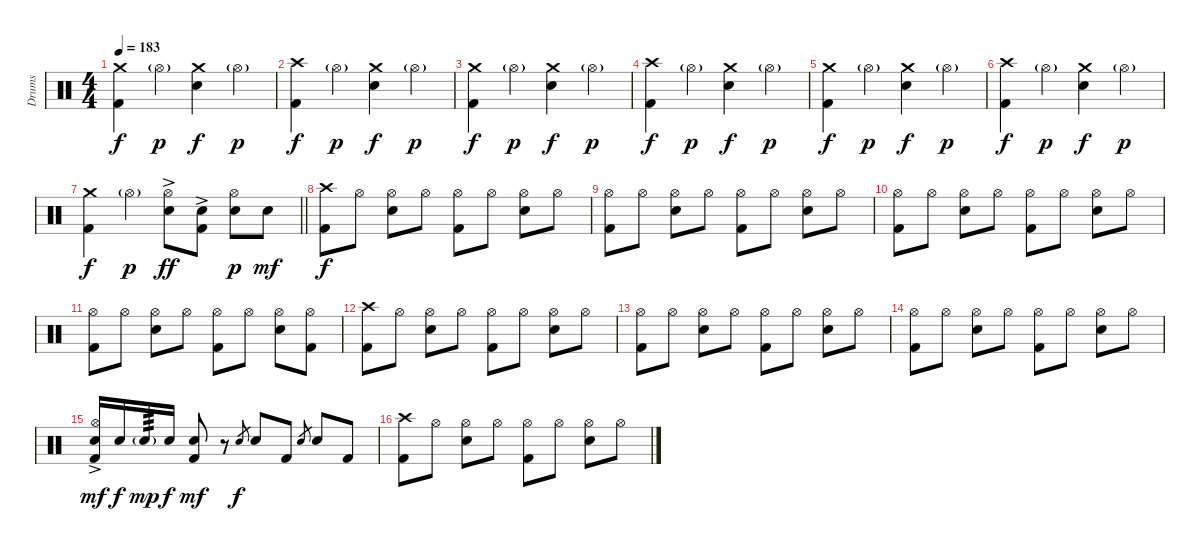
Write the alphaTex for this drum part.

\track ("Drums" "Drums") {instrument percussion}
\staff {score}
\articulation defaults
\ts (4 4)
\tempo 183
\clef neutral
\ks c
("Crash medium (hit)" "Kick (hit) 2").4{dy f} "Hi-Hat (open)"{g}.4{dy p} ("Crash medium (hit)" "Electric Snare (hit)").4{dy f} "Hi-Hat (open)"{g}.4{dy p} |
("Crash high (hit)" "Kick (hit) 2").4{dy f} "Hi-Hat (open)"{g}.4{dy p} ("Crash medium (hit)" "Electric Snare (hit)").4{dy f} "Hi-Hat (open)"{g}.4{dy p} |
("Crash medium (hit)" "Kick (hit) 2").4{dy f} "Hi-Hat (open)"{g}.4{dy p} ("Crash medium (hit)" "Electric Snare (hit)").4{dy f} "Hi-Hat (open)"{g}.4{dy p} |
("Crash high (hit)" "Kick (hit) 2").4{dy f} "Hi-Hat (open)"{g}.4{dy p} ("Crash medium (hit)" "Electric Snare (hit)").4{dy f} "Hi-Hat (open)"{g}.4{dy p} |
("Crash medium (hit)" "Kick (hit) 2").4{dy f} "Hi-Hat (open)"{g}.4{dy p} ("Crash medium (hit)" "Electric Snare (hit)").4{dy f} "Hi-Hat (open)"{g}.4{dy p} |
("Crash high (hit)" "Kick (hit) 2").4{dy f} "Hi-Hat (open)"{g}.4{dy p} ("Crash medium (hit)" "Electric Snare (hit)").4{dy f} "Hi-Hat (open)"{g}.4{dy p} |
\barLineRight lightlight
("Crash medium (hit)" "Kick (hit) 2").4{dy f} "Hi-Hat (open)"{g}.4{dy p} ("Hi-Hat (open)" "Electric Snare (hit)"{ac}).8{dy ff} ("Electric Snare (hit)"{ac} "Kick (hit) 2").8 ("Hi-Hat (open)" "Electric Snare (hit)").8{dy p} "Electric Snare (hit)".8{dy mf} |
("Crash high (hit)" "Kick (hit) 2").8{dy f} "Hi-Hat (open)".8 ("Hi-Hat (open)" "Electric Snare (hit)").8 "Hi-Hat (open)".8 ("Hi-Hat (open)" "Kick (hit) 2").8 "Hi-Hat (open)".8 ("Hi-Hat (open)" "Electric Snare (hit)").8 "Hi-Hat (open)".8 |
("Hi-Hat (open)" "Kick (hit) 2").8 "Hi-Hat (open)".8 ("Hi-Hat (open)" "Electric Snare (hit)").8 "Hi-Hat (open)".8 ("Hi-Hat (open)" "Kick (hit) 2").8 "Hi-Hat (open)".8 ("Hi-Hat (open)" "Electric Snare (hit)").8 "Hi-Hat (open)".8 |
("Hi-Hat (open)" "Kick (hit) 2").8 "Hi-Hat (open)".8 ("Hi-Hat (open)" "Electric Snare (hit)").8 "Hi-Hat (open)".8 ("Hi-Hat (open)" "Kick (hit) 2").8 "Hi-Hat (open)".8 ("Hi-Hat (open)" "Electric Snare (hit)").8 "Hi-Hat (open)".8 |
("Hi-Hat (open)" "Kick (hit) 2").8 "Hi-Hat (open)".8 ("Hi-Hat (open)" "Electric Snare (hit)").8 "Hi-Hat (open)".8 ("Hi-Hat (open)" "Kick (hit) 2").8 "Hi-Hat (open)".8 ("Hi-Hat (open)" "Electric Snare (hit)").8 ("Hi-Hat (open)" "Kick (hit) 2").8 |
("Crash high (hit)" "Kick (hit) 2").8 "Hi-Hat (open)".8 ("Hi-Hat (open)" "Electric Snare (hit)").8 "Hi-Hat (open)".8 ("Hi-Hat (open)" "Kick (hit) 2").8 "Hi-Hat (open)".8 ("Hi-Hat (open)" "Electric Snare (hit)").8 "Hi-Hat (open)".8 |
("Hi-Hat (open)" "Kick (hit) 2").8 "Hi-Hat (open)".8 ("Hi-Hat (open)" "Electric Snare (hit)").8 "Hi-Hat (open)".8 ("Hi-Hat (open)" "Kick (hit) 2").8 "Hi-Hat (open)".8 ("Hi-Hat (open)" "Electric Snare (hit)").8 "Hi-Hat (open)".8 |
("Hi-Hat (open)" "Kick (hit) 2").8 "Hi-Hat (open)".8 ("Hi-Hat (open)" "Electric Snare (hit)").8 "Hi-Hat (open)".8 ("Hi-Hat (open)" "Kick (hit) 2").8 "Hi-Hat (open)".8 ("Hi-Hat (open)" "Electric Snare (hit)").8 "Hi-Hat (open)".8 |
("Hi-Hat (open)" "Electric Snare (hit)"{ac} "Kick (hit) 2").16{dy mf} "Electric Snare (hit)".16{dy f} "Electric Snare (hit)"{g}.16{tp 3 dy mp} "Electric Snare (hit)".16{dy f} ("Electric Snare (hit)" "Kick (hit) 2").8{dy mf} r.8 "Electric Snare (hit)".8{gr dy f} "Electric Snare (hit)".8 "Kick (hit) 2".8 "Electric Snare (hit)".8{gr} "Electric Snare (hit)".8 "Kick (hit) 2".8 |
("Crash high (hit)" "Kick (hit) 2").8 "Hi-Hat (open)".8 ("Hi-Hat (open)" "Electric Snare (hit)").8 "Hi-Hat (open)".8 ("Hi-Hat (open)" "Kick (hit) 2").8 "Hi-Hat (open)".8 ("Hi-Hat (open)" "Electric Snare (hit)").8 "Hi-Hat (open)".8
